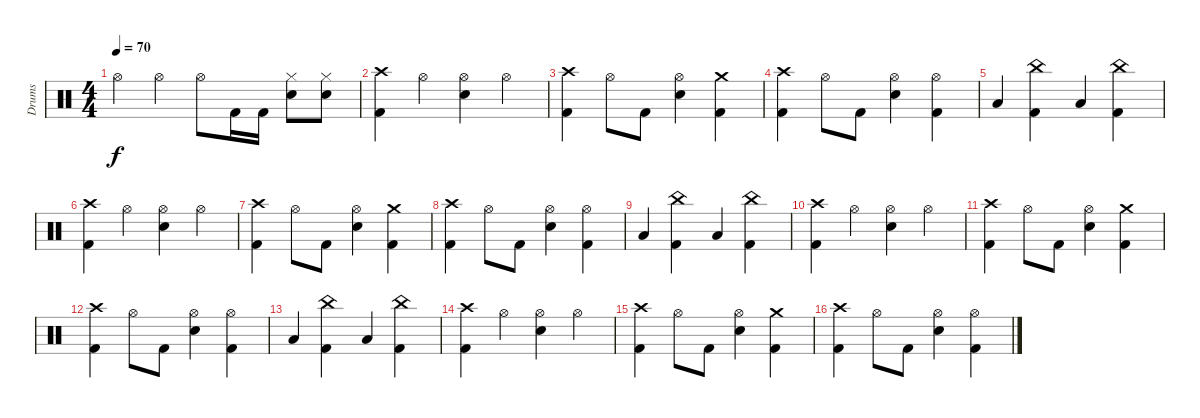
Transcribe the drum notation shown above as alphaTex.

\track ("Drums" "Drums") {instrument percussion}
\staff {score}
\articulation defaults
\ts (4 4)
\tempo 70
\clef neutral
\ks c "Hi-Hat (open)".4{dy f} "Hi-Hat (open)".4 "Hi-Hat (open)".8 "Kick (hit) 2".16 "Kick (hit) 2".16
("Hi-Hat (closed)" "Electric Snare (hit)").8 ("Hi-Hat (closed)" "Electric Snare (hit)").8 |
("Crash high (hit)" "Kick (hit) 2").4 "Hi-Hat (open)".4 ("Hi-Hat (open)" "Electric Snare (hit)").4 "Hi-Hat (open)".4 |
("Crash high (hit)" "Kick (hit) 2").4 "Hi-Hat (open)".8 "Kick (hit) 2".8 ("Hi-Hat (open)" "Electric Snare (hit)").4 ("Crash medium (hit)" "Kick (hit) 2").4 |
("Crash high (hit)" "Kick (hit) 2").4 "Hi-Hat (open)".8 "Kick (hit) 2".8 ("Hi-Hat (open)" "Electric Snare (hit)").4 ("Hi-Hat (open)" "Kick (hit) 2").4 |
"Low Floor Tom (hit)".4 ("China (hit)" "Kick (hit) 2").4 "Low Floor Tom (hit)".4 ("China (hit)" "Kick (hit) 2").4 |
("Crash high (hit)" "Kick (hit) 2").4 "Hi-Hat (open)".4 ("Hi-Hat (open)" "Electric Snare (hit)").4 "Hi-Hat (open)".4 |
("Crash high (hit)" "Kick (hit) 2").4 "Hi-Hat (open)".8 "Kick (hit) 2".8 ("Hi-Hat (open)" "Electric Snare (hit)").4 ("Crash medium (hit)" "Kick (hit) 2").4 |
("Crash high (hit)" "Kick (hit) 2").4 "Hi-Hat (open)".8 "Kick (hit) 2".8 ("Hi-Hat (open)" "Electric Snare (hit)").4 ("Hi-Hat (open)" "Kick (hit) 2").4 |
"Low Floor Tom (hit)".4 ("China (hit)" "Kick (hit) 2").4 "Low Floor Tom (hit)".4 ("China (hit)" "Kick (hit) 2").4 |
("Crash high (hit)" "Kick (hit) 2").4 "Hi-Hat (open)".4 ("Hi-Hat (open)" "Electric Snare (hit)").4 "Hi-Hat (open)".4 |
("Crash high (hit)" "Kick (hit) 2").4 "Hi-Hat (open)".8 "Kick (hit) 2".8 ("Hi-Hat (open)" "Electric Snare (hit)").4 ("Crash medium (hit)" "Kick (hit) 2").4 |
("Crash high (hit)" "Kick (hit) 2").4 "Hi-Hat (open)".8 "Kick (hit) 2".8 ("Hi-Hat (open)" "Electric Snare (hit)").4 ("Hi-Hat (open)" "Kick (hit) 2").4 |
"Low Floor Tom (hit)".4 ("China (hit)" "Kick (hit) 2").4 "Low Floor Tom (hit)".4 ("China (hit)" "Kick (hit) 2").4 |
("Crash high (hit)" "Kick (hit) 2").4 "Hi-Hat (open)".4 ("Hi-Hat (open)" "Electric Snare (hit)").4 "Hi-Hat (open)".4 |
("Crash high (hit)" "Kick (hit) 2").4 "Hi-Hat (open)".8 "Kick (hit) 2".8 ("Hi-Hat (open)" "Electric Snare (hit)").4 ("Crash medium (hit)" "Kick (hit) 2").4 |
("Crash high (hit)" "Kick (hit) 2").4 "Hi-Hat (open)".8 "Kick (hit) 2".8 ("Hi-Hat (open)" "Electric Snare (hit)").4 ("Hi-Hat (open)" "Kick (hit) 2").4
